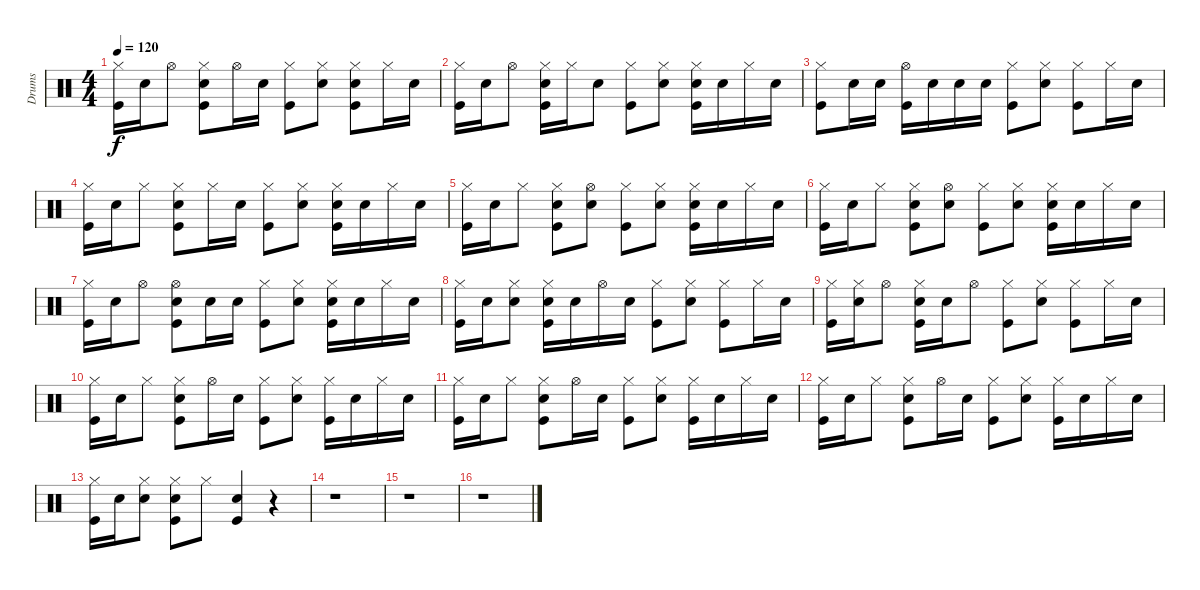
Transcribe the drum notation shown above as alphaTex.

\track ("Drums" "Drums") {instrument percussion}
\staff {score}
\articulation defaults
\ts (4 4)
\tempo 120
\clef neutral
\ks c
("Hi-Hat (closed)" "Kick (hit)").16{dy f} "Snare (hit) 2".16 "Hi-Hat (open)".8 ("Hi-Hat (closed)" "Snare (hit) 2" "Kick (hit)").8 "Hi-Hat (open)".16 "Snare (hit) 2".16 ("Hi-Hat (closed)" "Kick (hit)").8 ("Hi-Hat (closed)" "Snare (hit) 2").8 ("Hi-Hat (closed)" "Snare (hit) 2" "Kick (hit)").8 "Hi-Hat (closed)".16 "Snare (hit) 2".16 |
("Hi-Hat (closed)" "Kick (hit)").16 "Snare (hit) 2".16 "Hi-Hat (open)".8 ("Hi-Hat (closed)" "Snare (hit) 2" "Kick (hit)").16 "Hi-Hat (closed)".16 "Snare (hit) 2".8 ("Hi-Hat (closed)" "Kick (hit)").8 ("Hi-Hat (closed)" "Snare (hit) 2").8 ("Hi-Hat (closed)" "Snare (hit) 2" "Kick (hit)").16 "Snare (hit) 2".16 "Hi-Hat (closed)".16 "Snare (hit) 2".16 |
("Hi-Hat (closed)" "Kick (hit)").8 "Snare (hit) 2".16 "Snare (hit) 2".16 ("Hi-Hat (open)" "Kick (hit)").16 "Snare (hit) 2".16 "Snare (hit) 2".16 "Snare (hit) 2".16 ("Hi-Hat (closed)" "Kick (hit)").8 ("Hi-Hat (closed)" "Snare (hit) 2").8 ("Hi-Hat (closed)" "Kick (hit)").8 "Hi-Hat (closed)".16 "Snare (hit) 2".16 |
("Hi-Hat (closed)" "Kick (hit)").16 "Snare (hit) 2".16 "Hi-Hat (closed)".8 ("Hi-Hat (closed)" "Snare (hit) 2" "Kick (hit)").8 "Hi-Hat (closed)".16 "Snare (hit) 2".16 ("Hi-Hat (closed)" "Kick (hit)").8 ("Hi-Hat (closed)" "Snare (hit) 2").8 ("Hi-Hat (closed)" "Snare (hit) 2" "Kick (hit)").16 "Snare (hit) 2".16 "Hi-Hat (closed)".16 "Snare (hit) 2".16 |
("Hi-Hat (closed)" "Kick (hit)").16 "Snare (hit) 2".16 "Hi-Hat (closed)".8 ("Hi-Hat (closed)" "Snare (hit) 2" "Kick (hit)").8 ("Hi-Hat (open)" "Snare (hit) 2").8 ("Hi-Hat (closed)" "Kick (hit)").8 ("Hi-Hat (closed)" "Snare (hit) 2").8 ("Hi-Hat (closed)" "Snare (hit) 2" "Kick (hit)").16 "Snare (hit) 2".16 "Hi-Hat (closed)".16 "Snare (hit) 2".16 |
("Hi-Hat (closed)" "Kick (hit)").16 "Snare (hit) 2".16 "Hi-Hat (closed)".8 ("Hi-Hat (closed)" "Snare (hit) 2" "Kick (hit)").8 ("Hi-Hat (open)" "Snare (hit) 2").8 ("Hi-Hat (closed)" "Kick (hit)").8 ("Hi-Hat (closed)" "Snare (hit) 2").8 ("Hi-Hat (closed)" "Snare (hit) 2" "Kick (hit)").16 "Snare (hit) 2".16 "Hi-Hat (closed)".16 "Snare (hit) 2".16 |
("Hi-Hat (closed)" "Kick (hit)").16 "Snare (hit) 2".16 "Hi-Hat (open)".8 ("Hi-Hat (open)" "Snare (hit) 2" "Kick (hit)").8 "Snare (hit) 2".16 "Snare (hit) 2".16 ("Hi-Hat (closed)" "Kick (hit)").8 ("Hi-Hat (closed)" "Snare (hit) 2").8 ("Hi-Hat (closed)" "Snare (hit) 2" "Kick (hit)").16 "Snare (hit) 2".16 "Hi-Hat (closed)".16 "Snare (hit) 2".16 |
("Hi-Hat (closed)" "Kick (hit)").16 "Snare (hit) 2".16 ("Hi-Hat (closed)" "Snare (hit) 2").8 ("Hi-Hat (closed)" "Snare (hit) 2" "Kick (hit)").16 "Snare (hit) 2".16 "Hi-Hat (open)".16 "Snare (hit) 2".16 ("Hi-Hat (closed)" "Kick (hit)").8 ("Hi-Hat (closed)" "Snare (hit) 2").8 ("Hi-Hat (closed)" "Kick (hit)").8 "Hi-Hat (closed)".16 "Snare (hit) 2".16 |
("Hi-Hat (closed)" "Kick (hit)").16 ("Hi-Hat (closed)" "Snare (hit) 2").16 "Hi-Hat (open)".8 ("Hi-Hat (closed)" "Snare (hit) 2" "Kick (hit)").16 "Snare (hit) 2".16 "Hi-Hat (open)".8 ("Hi-Hat (closed)" "Kick (hit)").8 ("Hi-Hat (closed)" "Snare (hit) 2").8 ("Hi-Hat (closed)" "Kick (hit)").8 "Hi-Hat (closed)".16 "Snare (hit) 2".16 |
("Hi-Hat (closed)" "Kick (hit)").16 "Snare (hit) 2".16 "Hi-Hat (closed)".8 ("Hi-Hat (closed)" "Snare (hit) 2" "Kick (hit)").8 "Hi-Hat (open)".16 "Snare (hit) 2".16 ("Hi-Hat (closed)" "Kick (hit)").8 ("Hi-Hat (closed)" "Snare (hit) 2").8 ("Hi-Hat (closed)" "Kick (hit)").16 "Snare (hit) 2".16 "Hi-Hat (closed)".16 "Snare (hit) 2".16 |
("Hi-Hat (closed)" "Kick (hit)").16 "Snare (hit) 2".16 "Hi-Hat (closed)".8 ("Hi-Hat (closed)" "Snare (hit) 2" "Kick (hit)").8 "Hi-Hat (open)".16 "Snare (hit) 2".16 ("Hi-Hat (closed)" "Kick (hit)").8 ("Hi-Hat (closed)" "Snare (hit) 2").8 ("Hi-Hat (closed)" "Kick (hit)").16 "Snare (hit) 2".16 "Hi-Hat (closed)".16 "Snare (hit) 2".16 |
("Hi-Hat (closed)" "Kick (hit)").16 "Snare (hit) 2".16 "Hi-Hat (closed)".8 ("Hi-Hat (closed)" "Snare (hit) 2" "Kick (hit)").8 "Hi-Hat (open)".16 "Snare (hit) 2".16 ("Hi-Hat (closed)" "Kick (hit)").8 ("Hi-Hat (closed)" "Snare (hit) 2").8 ("Hi-Hat (closed)" "Kick (hit)").16 "Snare (hit) 2".16 "Hi-Hat (closed)".16 "Snare (hit) 2".16 |
("Hi-Hat (closed)" "Kick (hit)").16 "Snare (hit) 2".16 ("Hi-Hat (closed)" "Snare (hit) 2").8 ("Hi-Hat (closed)" "Snare (hit) 2" "Kick (hit)").8 "Hi-Hat (closed)".8 ("Snare (hit) 2" "Kick (hit)").4 r.4 |
r.1 |
r.1 |
r.1
